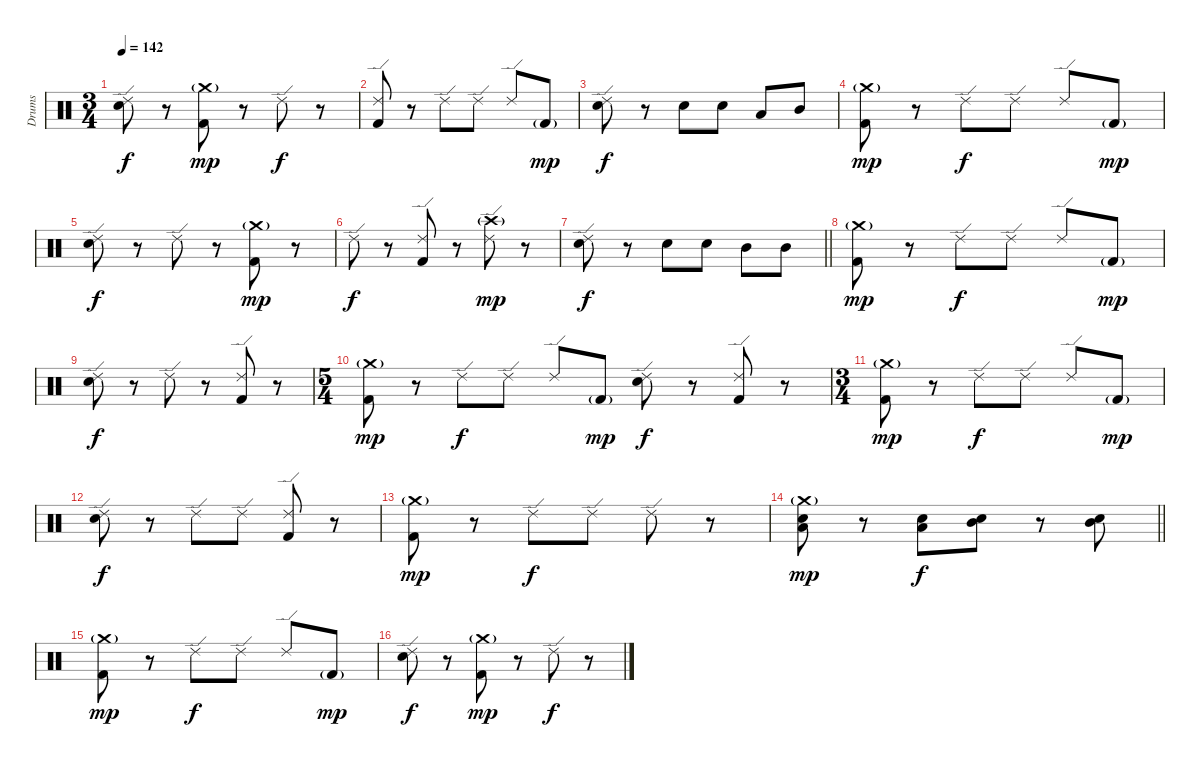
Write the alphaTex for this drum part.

\track ("Drums" "Drums") {instrument percussion}
\staff {score}
\articulation defaults
\ts (3 4)
\tempo 142
\clef neutral
\ks c
("Ride (edge) 2" "Electric Snare (hit)").8{dy f} r.8 ("Crash medium (hit)"{g} "Kick (hit) 2").8{dy mp} r.8 "Ride (edge) 2".8{dy f} r.8 |
("Ride (edge) 2" "Kick (hit) 2").8 r.8 "Ride (edge) 2".8 "Ride (edge) 2".8 "Ride (edge) 2".8 "Kick (hit) 2"{g}.8{dy mp} |
("Ride (edge) 2" "Electric Snare (hit)").8{dy f} r.8 "Electric Snare (hit)".8 "Electric Snare (hit)".8 "Low Tom (hit)".8 "Mid Tom (hit)".8 |
("Crash medium (hit)"{g} "Kick (hit) 2").8{dy mp} r.8 "Ride (edge) 2".8{dy f} "Ride (edge) 2".8 "Ride (edge) 2".8 "Kick (hit) 2"{g}.8{dy mp} |
("Ride (edge) 2" "Electric Snare (hit)").8{dy f} r.8 "Ride (edge) 2".8 r.8 ("Crash medium (hit)"{g} "Kick (hit) 2").8{dy mp} r.8 |
"Ride (edge) 2".8{dy f} r.8 ("Ride (edge) 2" "Kick (hit) 2").8 r.8 ("Crash high (hit)"{g} "Ride (edge) 2").8{dy mp} r.8 |
\barLineRight lightlight
("Ride (edge) 2" "Electric Snare (hit)").8{dy f} r.8 "Electric Snare (hit)".8 "Electric Snare (hit)".8 "Mid Tom (hit)".8 "Mid Tom (hit)".8 |
("Crash medium (hit)"{g} "Kick (hit) 2").8{dy mp} r.8 "Ride (edge) 2".8{dy f} "Ride (edge) 2".8 "Ride (edge) 2".8 "Kick (hit) 2"{g}.8{dy mp} |
("Ride (edge) 2" "Electric Snare (hit)").8{dy f} r.8 "Ride (edge) 2".8 r.8 ("Ride (edge) 2" "Kick (hit) 2").8 r.8 |
\ts (5 4)
("Crash medium (hit)"{g} "Kick (hit) 2").8{dy mp} r.8 "Ride (edge) 2".8{dy f} "Ride (edge) 2".8 "Ride (edge) 2".8 "Kick (hit) 2"{g}.8{dy mp} ("Ride (edge) 2" "Electric Snare (hit)").8{dy f} r.8 ("Ride (edge) 2" "Kick (hit) 2").8 r.8 |
\ts (3 4)
("Crash medium (hit)"{g} "Kick (hit) 2").8{dy mp} r.8 "Ride (edge) 2".8{dy f} "Ride (edge) 2".8 "Ride (edge) 2".8 "Kick (hit) 2"{g}.8{dy mp} |
("Ride (edge) 2" "Electric Snare (hit)").8{dy f} r.8 "Ride (edge) 2".8 "Ride (edge) 2".8 ("Ride (edge) 2" "Kick (hit) 2").8 r.8 |
("Crash medium (hit)"{g} "Kick (hit) 2").8{dy mp} r.8 "Ride (edge) 2".8{dy f} "Ride (edge) 2".8 "Ride (edge) 2".8 r.8 |
\barLineRight lightlight
("Crash medium (hit)"{g} "Low Tom (hit)" "Electric Snare (hit)").8{dy mp} r.8 ("Low Tom (hit)" "Electric Snare (hit)").8{dy f} ("Mid Tom (hit)" "Electric Snare (hit)").8 r.8 ("Mid Tom (hit)" "Electric Snare (hit)").8 |
("Crash medium (hit)"{g} "Kick (hit) 2").8{dy mp} r.8 "Ride (edge) 2".8{dy f} "Ride (edge) 2".8 "Ride (edge) 2".8 "Kick (hit) 2"{g}.8{dy mp} |
("Ride (edge) 2" "Electric Snare (hit)").8{dy f} r.8 ("Crash medium (hit)"{g} "Kick (hit) 2").8{dy mp} r.8 "Ride (edge) 2".8{dy f} r.8
